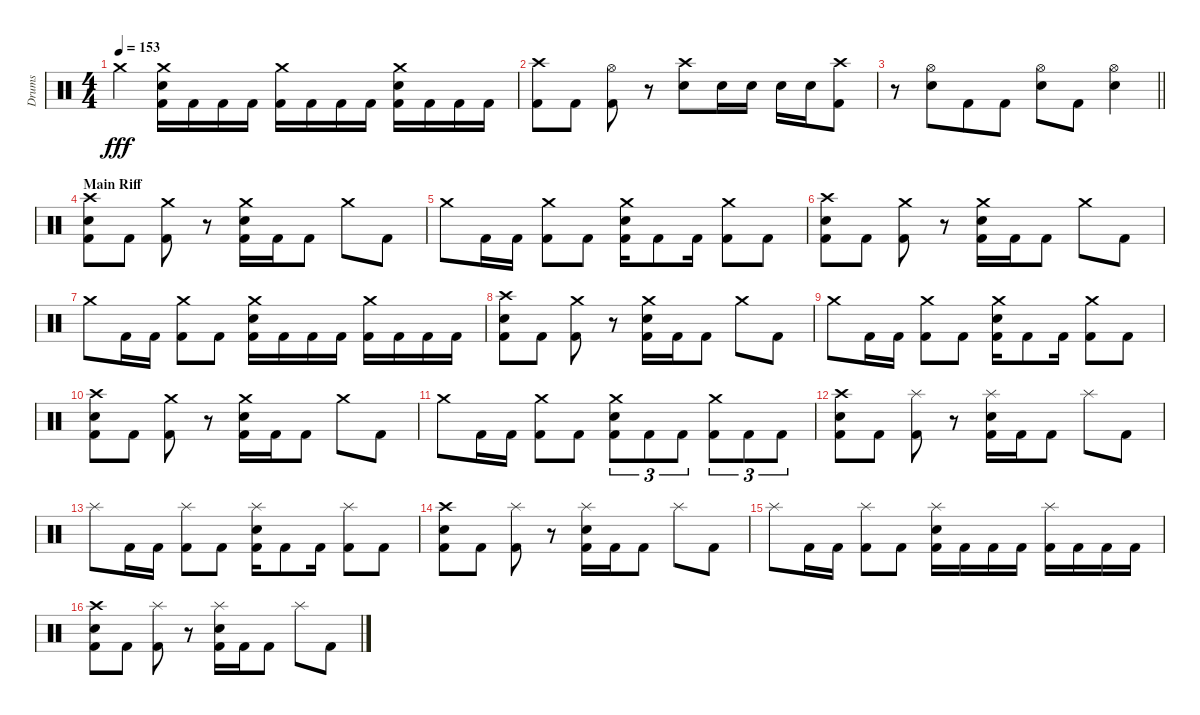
\track ("Drums" "Drums") {instrument percussion}
\staff {score}
\articulation defaults
\ts (4 4)
\tempo 153
\clef neutral
\ks c "Crash medium (hit)".4{dy fff}
("Crash medium (hit)" "Snare (hit) 2" "Kick (hit) 2").16 "Kick (hit) 2".16 "Kick (hit) 2".16 "Kick (hit) 2".16 ("Crash medium (hit)" "Kick (hit) 2").16 "Kick (hit) 2".16 "Kick (hit) 2".16 "Kick (hit) 2".16 ("Crash medium (hit)" "Snare (hit) 2" "Kick (hit) 2").16 "Kick (hit) 2".16 "Kick (hit) 2".16 "Kick (hit) 2".16 |
("Crash high (hit)" "Kick (hit) 2").8 "Kick (hit) 2".8 ("Hi-Hat (open)" "Kick (hit) 2").8 r.8{beam merge} ("Crash high (hit)" "Snare (hit) 2").8 "Snare (hit) 2".16 "Snare (hit) 2".16 "Snare (hit) 2".16{beam merge} "Snare (hit) 2".16 ("Crash high (hit)" "Kick (hit) 2").8 |
\barLineRight lightlight
r.8 ("Hi-Hat (open)" "Snare (hit) 2").8{beam merge} "Kick (hit) 2".8{beam merge} "Kick (hit) 2".8 ("Hi-Hat (open)" "Snare (hit) 2").8{beam merge} "Kick (hit) 2".8 ("Hi-Hat (open)" "Snare (hit) 2").4 |
\section ("" "Main Riff")
("Crash high (hit)" "Snare (hit) 2" "Kick (hit) 2").8 "Kick (hit) 2".8 ("Crash medium (hit)" "Kick (hit) 2").8 r.8 ("Snare (hit) 2" "Crash medium (hit)" "Kick (hit) 2").16 "Kick (hit) 2".16 "Kick (hit) 2".8 "Crash medium (hit)".8 "Kick (hit) 2".8 |
"Crash medium (hit)".8 "Kick (hit) 2".16 "Kick (hit) 2".16 ("Crash medium (hit)" "Kick (hit) 2").8 "Kick (hit) 2".8 ("Snare (hit) 2" "Crash medium (hit)" "Kick (hit) 2").16 "Kick (hit) 2".8 "Kick (hit) 2".16 ("Crash medium (hit)" "Kick (hit) 2").8 "Kick (hit) 2".8 |
("Crash high (hit)" "Snare (hit) 2" "Kick (hit) 2").8 "Kick (hit) 2".8 ("Crash medium (hit)" "Kick (hit) 2").8 r.8 ("Snare (hit) 2" "Crash medium (hit)" "Kick (hit) 2").16 "Kick (hit) 2".16 "Kick (hit) 2".8 "Crash medium (hit)".8 "Kick (hit) 2".8 |
"Crash medium (hit)".8 "Kick (hit) 2".16 "Kick (hit) 2".16 ("Crash medium (hit)" "Kick (hit) 2").8 "Kick (hit) 2".8 ("Snare (hit) 2" "Crash medium (hit)" "Kick (hit) 2").16 "Kick (hit) 2".16 "Kick (hit) 2".16 "Kick (hit) 2".16 ("Crash medium (hit)" "Kick (hit) 2").16 "Kick (hit) 2".16 "Kick (hit) 2".16 "Kick (hit) 2".16 |
("Crash high (hit)" "Snare (hit) 2" "Kick (hit) 2").8 "Kick (hit) 2".8 ("Crash medium (hit)" "Kick (hit) 2").8 r.8 ("Snare (hit) 2" "Crash medium (hit)" "Kick (hit) 2").16 "Kick (hit) 2".16 "Kick (hit) 2".8 "Crash medium (hit)".8 "Kick (hit) 2".8 |
"Crash medium (hit)".8 "Kick (hit) 2".16 "Kick (hit) 2".16 ("Crash medium (hit)" "Kick (hit) 2").8 "Kick (hit) 2".8 ("Snare (hit) 2" "Crash medium (hit)" "Kick (hit) 2").16 "Kick (hit) 2".8 "Kick (hit) 2".16 ("Crash medium (hit)" "Kick (hit) 2").8 "Kick (hit) 2".8 |
("Crash high (hit)" "Snare (hit) 2" "Kick (hit) 2").8 "Kick (hit) 2".8 ("Crash medium (hit)" "Kick (hit) 2").8 r.8 ("Snare (hit) 2" "Crash medium (hit)" "Kick (hit) 2").16 "Kick (hit) 2".16 "Kick (hit) 2".8 "Crash medium (hit)".8 "Kick (hit) 2".8 |
"Crash medium (hit)".8 "Kick (hit) 2".16 "Kick (hit) 2".16 ("Crash medium (hit)" "Kick (hit) 2").8 "Kick (hit) 2".8 ("Snare (hit) 2" "Crash medium (hit)" "Kick (hit) 2").8{tu (3 2)} "Kick (hit) 2".8{tu (3 2)} "Kick (hit) 2".8{tu (3 2)} ("Crash medium (hit)" "Kick (hit) 2").8{tu (3 2)} "Kick (hit) 2".8{tu (3 2)} "Kick (hit) 2".8{tu (3 2)} |
("Crash high (hit)" "Snare (hit) 2" "Kick (hit) 2").8 "Kick (hit) 2".8 ("Splash (hit)" "Kick (hit) 2").8 r.8 ("Snare (hit) 2" "Splash (hit)" "Kick (hit) 2").16 "Kick (hit) 2".16 "Kick (hit) 2".8 "Splash (hit)".8 "Kick (hit) 2".8 |
"Splash (hit)".8 "Kick (hit) 2".16 "Kick (hit) 2".16 ("Splash (hit)" "Kick (hit) 2").8 "Kick (hit) 2".8 ("Snare (hit) 2" "Splash (hit)" "Kick (hit) 2").16 "Kick (hit) 2".8 "Kick (hit) 2".16 ("Splash (hit)" "Kick (hit) 2").8 "Kick (hit) 2".8 |
("Crash high (hit)" "Snare (hit) 2" "Kick (hit) 2").8 "Kick (hit) 2".8 ("Splash (hit)" "Kick (hit) 2").8 r.8 ("Snare (hit) 2" "Splash (hit)" "Kick (hit) 2").16 "Kick (hit) 2".16 "Kick (hit) 2".8 "Splash (hit)".8 "Kick (hit) 2".8 |
"Splash (hit)".8 "Kick (hit) 2".16 "Kick (hit) 2".16 ("Splash (hit)" "Kick (hit) 2").8 "Kick (hit) 2".8 ("Snare (hit) 2" "Splash (hit)" "Kick (hit) 2").16 "Kick (hit) 2".16 "Kick (hit) 2".16 "Kick (hit) 2".16 ("Splash (hit)" "Kick (hit) 2").16 "Kick (hit) 2".16 "Kick (hit) 2".16 "Kick (hit) 2".16 |
("Crash high (hit)" "Snare (hit) 2" "Kick (hit) 2").8 "Kick (hit) 2".8 ("Splash (hit)" "Kick (hit) 2").8 r.8 ("Snare (hit) 2" "Splash (hit)" "Kick (hit) 2").16 "Kick (hit) 2".16 "Kick (hit) 2".8 "Splash (hit)".8 "Kick (hit) 2".8
